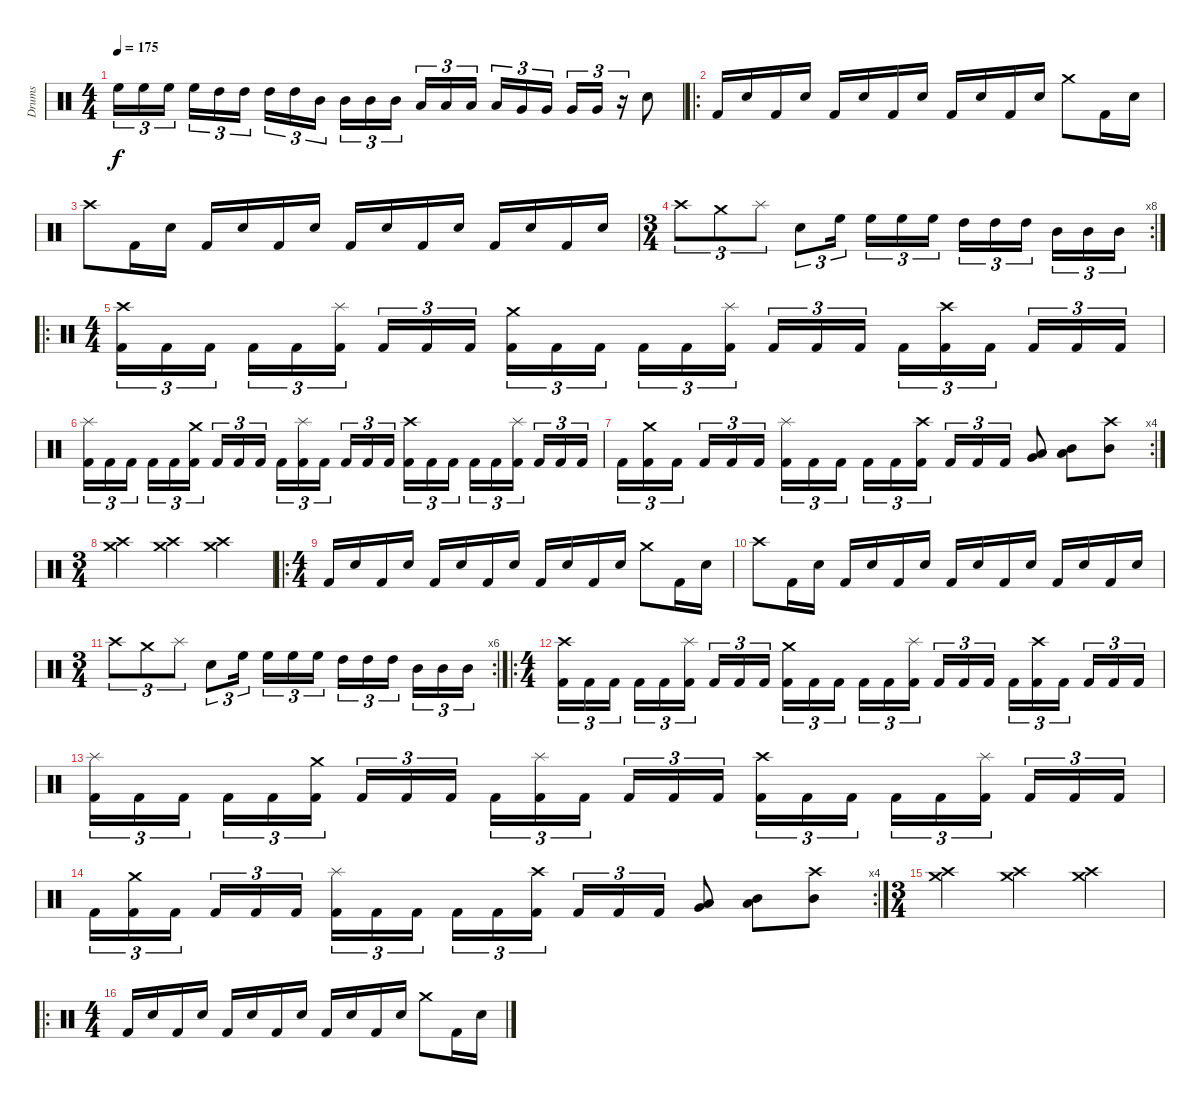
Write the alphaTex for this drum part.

\track ("Drums" "Drums") {instrument percussion}
\staff {score}
\articulation defaults
\ts (4 4)
\tempo 175
\clef neutral
\ks c "High Floor Tom (hit)".16{tu (3 2) dy f} "High Floor Tom (hit)".16{tu (3 2)} "High Floor Tom (hit)".16{tu (3 2)} "High Floor Tom (hit)".16{tu (3 2)} "High Tom (hit)".16{tu (3 2)} "High Tom (hit)".16{tu (3 2)} "High Tom (hit)".16{tu (3 2)} "High Tom (hit)".16{tu (3 2)} "Mid Tom (hit)".16{tu (3 2)} "Mid Tom (hit)".16{tu (3 2)} "Mid Tom (hit)".16{tu (3 2)} "Mid Tom (hit)".16{tu (3 2)} "Low Tom (hit)".16{tu (3 2)} "Low Tom (hit)".16{tu (3 2)} "Low Tom (hit)".16{tu (3 2)} "Low Tom (hit)".16{tu (3 2)} "Very Low Tom (hit)".16{tu (3 2)} "Very Low Tom (hit)".16{tu (3 2)} "Very Low Tom (hit)".16{tu (3 2)} "Very Low Tom (hit)".16{tu (3 2)}
r.16{tu (3 2)} "Snare (hit) 2".8 |
\ro "Kick (hit) 2".16 "Snare (hit) 2".16 "Kick (hit) 2".16 "Snare (hit) 2".16 "Kick (hit) 2".16 "Snare (hit) 2".16 "Kick (hit) 2".16 "Snare (hit) 2".16 "Kick (hit) 2".16 "Snare (hit) 2".16 "Kick (hit) 2".16 "Snare (hit) 2".16 "Crash medium (hit)".8 "Kick (hit) 2".16 "Snare (hit) 2".16
|
"Crash high (hit)".8 "Kick (hit) 2".16 "Snare (hit) 2".16 "Kick (hit) 2".16 "Snare (hit) 2".16 "Kick (hit) 2".16 "Snare (hit) 2".16 "Kick (hit) 2".16 "Snare (hit) 2".16 "Kick (hit) 2".16 "Snare (hit) 2".16 "Kick (hit) 2".16 "Snare (hit) 2".16 "Kick (hit) 2".16 "Snare (hit) 2".16 |
\rc 8
\ts (3 4)
"Crash high (hit)".8{tu (3 2)} "Crash medium (hit)".8{tu (3 2)} "Splash (hit)".8{tu (3 2)} "Snare (hit) 2".8{tu (3 2)} "High Floor Tom (hit)".16{tu (3 2)} "High Floor Tom (hit)".16{tu (3 2)} "High Floor Tom (hit)".16{tu (3 2)} "High Floor Tom (hit)".16{tu (3 2)} "High Tom (hit)".16{tu (3 2)} "High Tom (hit)".16{tu (3 2)} "High Tom (hit)".16{tu (3 2)} "Mid Tom (hit)".16{tu (3 2)} "Mid Tom (hit)".16{tu (3 2)} "Mid Tom (hit)".16{tu (3 2)} |
\ro
\ts (4 4)
("Crash high (hit)" "Kick (hit) 2").16{tu (3 2)} "Kick (hit) 2".16{tu (3 2)} "Kick (hit) 2".16{tu (3 2)} "Kick (hit) 2".16{tu (3 2)} "Kick (hit) 2".16{tu (3 2)} ("Splash (hit)" "Kick (hit) 2").16{tu (3 2)} "Kick (hit) 2".16{tu (3 2)} "Kick (hit) 2".16{tu (3 2)} "Kick (hit) 2".16{tu (3 2)} ("Crash medium (hit)" "Kick (hit) 2").16{tu (3 2)} "Kick (hit) 2".16{tu (3 2)} "Kick (hit) 2".16{tu (3 2)} "Kick (hit) 2".16{tu (3 2)} "Kick (hit) 2".16{tu (3 2)} ("Splash (hit)" "Kick (hit) 2").16{tu (3 2)} "Kick (hit) 2".16{tu (3 2)} "Kick (hit) 2".16{tu (3 2)} "Kick (hit) 2".16{tu (3 2)} "Kick (hit) 2".16{tu (3 2)} ("Crash high (hit)" "Kick (hit) 2").16{tu (3 2)} "Kick (hit) 2".16{tu (3 2)} "Kick (hit) 2".16{tu (3 2)} "Kick (hit) 2".16{tu (3 2)} "Kick (hit) 2".16{tu (3 2)} |
("Splash (hit)" "Kick (hit) 2").16{tu (3 2)} "Kick (hit) 2".16{tu (3 2)} "Kick (hit) 2".16{tu (3 2)} "Kick (hit) 2".16{tu (3 2)} "Kick (hit) 2".16{tu (3 2)} ("Crash medium (hit)" "Kick (hit) 2").16{tu (3 2)} "Kick (hit) 2".16{tu (3 2)} "Kick (hit) 2".16{tu (3 2)} "Kick (hit) 2".16{tu (3 2)} "Kick (hit) 2".16{tu (3 2)} ("Splash (hit)" "Kick (hit) 2").16{tu (3 2)} "Kick (hit) 2".16{tu (3 2)} "Kick (hit) 2".16{tu (3 2)} "Kick (hit) 2".16{tu (3 2)} "Kick (hit) 2".16{tu (3 2)} ("Crash high (hit)" "Kick (hit) 2").16{tu (3 2)} "Kick (hit) 2".16{tu (3 2)} "Kick (hit) 2".16{tu (3 2)} "Kick (hit) 2".16{tu (3 2)} "Kick (hit) 2".16{tu (3 2)} ("Splash (hit)" "Kick (hit) 2").16{tu (3 2)} "Kick (hit) 2".16{tu (3 2)} "Kick (hit) 2".16{tu (3 2)} "Kick (hit) 2".16{tu (3 2)} |
\rc 4 "Kick (hit) 2".16{tu (3 2)}
("Crash medium (hit)" "Kick (hit) 2").16{tu (3 2)} "Kick (hit) 2".16{tu (3 2)} "Kick (hit) 2".16{tu (3 2)} "Kick (hit) 2".16{tu (3 2)} "Kick (hit) 2".16{tu (3 2)} ("Splash (hit)" "Kick (hit) 2").16{tu (3 2)} "Kick (hit) 2".16{tu (3 2)} "Kick (hit) 2".16{tu (3 2)} "Kick (hit) 2".16{tu (3 2)} "Kick (hit) 2".16{tu (3 2)} ("Crash high (hit)" "Kick (hit) 2").16{tu (3 2)} "Kick (hit) 2".16{tu (3 2)} "Kick (hit) 2".16{tu (3 2)} "Kick (hit) 2".16{tu (3 2)} ("Low Tom (hit)" "Very Low Tom (hit)").8 ("Mid Tom (hit)" "Low Tom (hit)").8 ("Crash high (hit)" "Mid Tom (hit)").8 |
\ts (3 4)
("Crash medium (hit)" "Crash high (hit)").4 ("Crash medium (hit)" "Crash high (hit)").4 ("Crash medium (hit)" "Crash high (hit)").4 |
\ro
\ts (4 4)
"Kick (hit) 2".16 "Snare (hit) 2".16 "Kick (hit) 2".16 "Snare (hit) 2".16 "Kick (hit) 2".16 "Snare (hit) 2".16 "Kick (hit) 2".16 "Snare (hit) 2".16 "Kick (hit) 2".16 "Snare (hit) 2".16 "Kick (hit) 2".16 "Snare (hit) 2".16 "Crash medium (hit)".8 "Kick (hit) 2".16 "Snare (hit) 2".16 |
"Crash high (hit)".8 "Kick (hit) 2".16 "Snare (hit) 2".16 "Kick (hit) 2".16 "Snare (hit) 2".16 "Kick (hit) 2".16 "Snare (hit) 2".16 "Kick (hit) 2".16 "Snare (hit) 2".16 "Kick (hit) 2".16 "Snare (hit) 2".16 "Kick (hit) 2".16 "Snare (hit) 2".16 "Kick (hit) 2".16 "Snare (hit) 2".16 |
\rc 6
\ts (3 4)
"Crash high (hit)".8{tu (3 2)} "Crash medium (hit)".8{tu (3 2)} "Splash (hit)".8{tu (3 2)} "Snare (hit) 2".8{tu (3 2)} "High Floor Tom (hit)".16{tu (3 2)} "High Floor Tom (hit)".16{tu (3 2)} "High Floor Tom (hit)".16{tu (3 2)} "High Floor Tom (hit)".16{tu (3 2)} "High Tom (hit)".16{tu (3 2)} "High Tom (hit)".16{tu (3 2)} "High Tom (hit)".16{tu (3 2)} "Mid Tom (hit)".16{tu (3 2)} "Mid Tom (hit)".16{tu (3 2)} "Mid Tom (hit)".16{tu (3 2)} |
\ro
\ts (4 4)
("Crash high (hit)" "Kick (hit) 2").16{tu (3 2)} "Kick (hit) 2".16{tu (3 2)} "Kick (hit) 2".16{tu (3 2)} "Kick (hit) 2".16{tu (3 2)} "Kick (hit) 2".16{tu (3 2)} ("Splash (hit)" "Kick (hit) 2").16{tu (3 2)} "Kick (hit) 2".16{tu (3 2)} "Kick (hit) 2".16{tu (3 2)} "Kick (hit) 2".16{tu (3 2)} ("Crash medium (hit)" "Kick (hit) 2").16{tu (3 2)} "Kick (hit) 2".16{tu (3 2)} "Kick (hit) 2".16{tu (3 2)} "Kick (hit) 2".16{tu (3 2)} "Kick (hit) 2".16{tu (3 2)} ("Splash (hit)" "Kick (hit) 2").16{tu (3 2)} "Kick (hit) 2".16{tu (3 2)} "Kick (hit) 2".16{tu (3 2)} "Kick (hit) 2".16{tu (3 2)} "Kick (hit) 2".16{tu (3 2)} ("Crash high (hit)" "Kick (hit) 2").16{tu (3 2)} "Kick (hit) 2".16{tu (3 2)} "Kick (hit) 2".16{tu (3 2)} "Kick (hit) 2".16{tu (3 2)} "Kick (hit) 2".16{tu (3 2)} |
("Splash (hit)" "Kick (hit) 2").16{tu (3 2)} "Kick (hit) 2".16{tu (3 2)} "Kick (hit) 2".16{tu (3 2)} "Kick (hit) 2".16{tu (3 2)} "Kick (hit) 2".16{tu (3 2)} ("Crash medium (hit)" "Kick (hit) 2").16{tu (3 2)} "Kick (hit) 2".16{tu (3 2)} "Kick (hit) 2".16{tu (3 2)} "Kick (hit) 2".16{tu (3 2)} "Kick (hit) 2".16{tu (3 2)} ("Splash (hit)" "Kick (hit) 2").16{tu (3 2)} "Kick (hit) 2".16{tu (3 2)} "Kick (hit) 2".16{tu (3 2)} "Kick (hit) 2".16{tu (3 2)} "Kick (hit) 2".16{tu (3 2)} ("Crash high (hit)" "Kick (hit) 2").16{tu (3 2)} "Kick (hit) 2".16{tu (3 2)} "Kick (hit) 2".16{tu (3 2)} "Kick (hit) 2".16{tu (3 2)} "Kick (hit) 2".16{tu (3 2)} ("Splash (hit)" "Kick (hit) 2").16{tu (3 2)} "Kick (hit) 2".16{tu (3 2)} "Kick (hit) 2".16{tu (3 2)} "Kick (hit) 2".16{tu (3 2)} |
\rc 4 "Kick (hit) 2".16{tu (3 2)}
("Crash medium (hit)" "Kick (hit) 2").16{tu (3 2)} "Kick (hit) 2".16{tu (3 2)} "Kick (hit) 2".16{tu (3 2)} "Kick (hit) 2".16{tu (3 2)} "Kick (hit) 2".16{tu (3 2)} ("Splash (hit)" "Kick (hit) 2").16{tu (3 2)} "Kick (hit) 2".16{tu (3 2)} "Kick (hit) 2".16{tu (3 2)} "Kick (hit) 2".16{tu (3 2)} "Kick (hit) 2".16{tu (3 2)} ("Crash high (hit)" "Kick (hit) 2").16{tu (3 2)} "Kick (hit) 2".16{tu (3 2)} "Kick (hit) 2".16{tu (3 2)} "Kick (hit) 2".16{tu (3 2)} ("Low Tom (hit)" "Very Low Tom (hit)").8 ("Mid Tom (hit)" "Low Tom (hit)").8 ("Crash high (hit)" "Mid Tom (hit)").8 |
\ts (3 4)
("Crash medium (hit)" "Crash high (hit)").4 ("Crash medium (hit)" "Crash high (hit)").4 ("Crash medium (hit)" "Crash high (hit)").4 |
\ro
\ts (4 4)
"Kick (hit) 2".16 "Snare (hit) 2".16 "Kick (hit) 2".16 "Snare (hit) 2".16 "Kick (hit) 2".16 "Snare (hit) 2".16 "Kick (hit) 2".16 "Snare (hit) 2".16 "Kick (hit) 2".16 "Snare (hit) 2".16 "Kick (hit) 2".16 "Snare (hit) 2".16 "Crash medium (hit)".8 "Kick (hit) 2".16 "Snare (hit) 2".16
